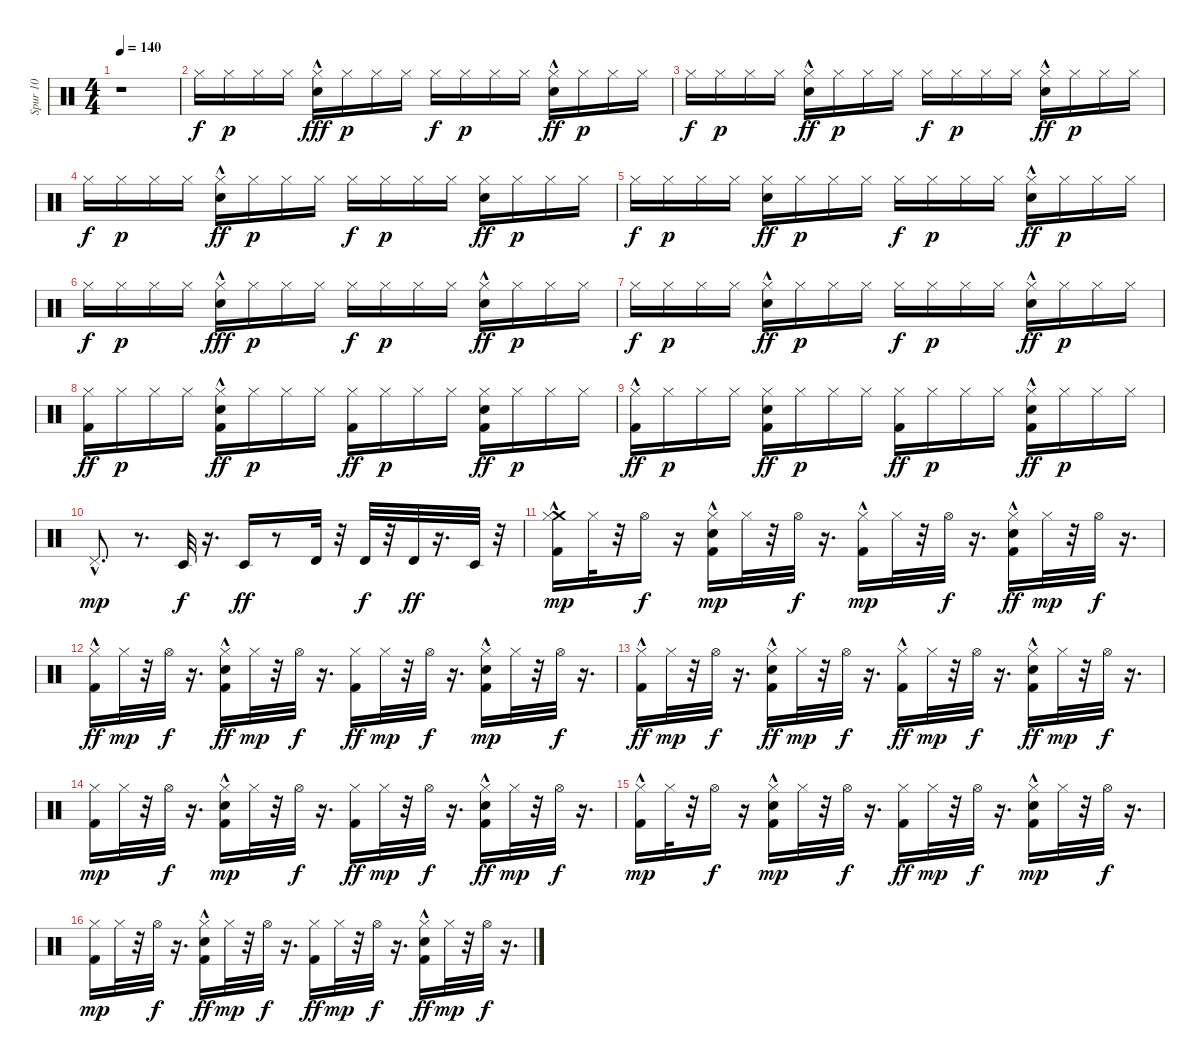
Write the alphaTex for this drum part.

\track ("Spur 10" "Spur 10") {instrument percussion}
\staff {score}
\articulation defaults
\ts (4 4)
\tempo 140
\clef neutral
\ks c
r.1{dy f} |
"Hi-Hat (closed)".16 "Hi-Hat (closed)".16{dy p} "Hi-Hat (closed)".16 "Hi-Hat (closed)".16 ("Hi-Hat (closed)" "Hand Clap (hit)"{hac}).16{dy fff} "Hi-Hat (closed)".16{dy p} "Hi-Hat (closed)".16 "Hi-Hat (closed)".16 "Hi-Hat (closed)".16{dy f} "Hi-Hat (closed)".16{dy p} "Hi-Hat (closed)".16 "Hi-Hat (closed)".16 ("Hi-Hat (closed)" "Hand Clap (hit)"{hac}).16{dy ff} "Hi-Hat (closed)".16{dy p} "Hi-Hat (closed)".16 "Hi-Hat (closed)".16 |
"Hi-Hat (closed)".16{dy f} "Hi-Hat (closed)".16{dy p} "Hi-Hat (closed)".16 "Hi-Hat (closed)".16 ("Hand Clap (hit)"{hac} "Hi-Hat (closed)").16{dy ff} "Hi-Hat (closed)".16{dy p} "Hi-Hat (closed)".16 "Hi-Hat (closed)".16 "Hi-Hat (closed)".16{dy f} "Hi-Hat (closed)".16{dy p} "Hi-Hat (closed)".16 "Hi-Hat (closed)".16 ("Hand Clap (hit)"{hac} "Hi-Hat (closed)").16{dy ff} "Hi-Hat (closed)".16{dy p} "Hi-Hat (closed)".16 "Hi-Hat (closed)".16 |
"Hi-Hat (closed)".16{dy f} "Hi-Hat (closed)".16{dy p} "Hi-Hat (closed)".16 "Hi-Hat (closed)".16 ("Hi-Hat (closed)" "Hand Clap (hit)"{hac}).16{dy ff} "Hi-Hat (closed)".16{dy p} "Hi-Hat (closed)".16 "Hi-Hat (closed)".16 "Hi-Hat (closed)".16{dy f} "Hi-Hat (closed)".16{dy p} "Hi-Hat (closed)".16 "Hi-Hat (closed)".16 ("Hi-Hat (closed)" "Hand Clap (hit)").16{dy ff} "Hi-Hat (closed)".16{dy p} "Hi-Hat (closed)".16 "Hi-Hat (closed)".16 |
"Hi-Hat (closed)".16{dy f} "Hi-Hat (closed)".16{dy p} "Hi-Hat (closed)".16 "Hi-Hat (closed)".16 ("Hi-Hat (closed)" "Hand Clap (hit)").16{dy ff} "Hi-Hat (closed)".16{dy p} "Hi-Hat (closed)".16 "Hi-Hat (closed)".16 "Hi-Hat (closed)".16{dy f} "Hi-Hat (closed)".16{dy p} "Hi-Hat (closed)".16 "Hi-Hat (closed)".16 ("Hi-Hat (closed)" "Hand Clap (hit)"{hac}).16{dy ff} "Hi-Hat (closed)".16{dy p} "Hi-Hat (closed)".16 "Hi-Hat (closed)".16 |
"Hi-Hat (closed)".16{dy f} "Hi-Hat (closed)".16{dy p} "Hi-Hat (closed)".16 "Hi-Hat (closed)".16 ("Hi-Hat (closed)" "Hand Clap (hit)"{hac}).16{dy fff} "Hi-Hat (closed)".16{dy p} "Hi-Hat (closed)".16 "Hi-Hat (closed)".16 "Hi-Hat (closed)".16{dy f} "Hi-Hat (closed)".16{dy p} "Hi-Hat (closed)".16 "Hi-Hat (closed)".16 ("Hi-Hat (closed)" "Hand Clap (hit)"{hac}).16{dy ff} "Hi-Hat (closed)".16{dy p} "Hi-Hat (closed)".16 "Hi-Hat (closed)".16 |
"Hi-Hat (closed)".16{dy f} "Hi-Hat (closed)".16{dy p} "Hi-Hat (closed)".16 "Hi-Hat (closed)".16 ("Hi-Hat (closed)" "Hand Clap (hit)"{hac}).16{dy ff} "Hi-Hat (closed)".16{dy p} "Hi-Hat (closed)".16 "Hi-Hat (closed)".16 "Hi-Hat (closed)".16{dy f} "Hi-Hat (closed)".16{dy p} "Hi-Hat (closed)".16 "Hi-Hat (closed)".16 ("Hi-Hat (closed)" "Hand Clap (hit)"{hac}).16{dy ff} "Hi-Hat (closed)".16{dy p} "Hi-Hat (closed)".16 "Hi-Hat (closed)".16 |
("Kick (hit) 2" "Hi-Hat (closed)").16{dy ff} "Hi-Hat (closed)".16{dy p} "Hi-Hat (closed)".16 "Hi-Hat (closed)".16 ("Hand Clap (hit)"{hac} "Hi-Hat (closed)" "Kick (hit) 2").16{dy ff} "Hi-Hat (closed)".16{dy p} "Hi-Hat (closed)".16 "Hi-Hat (closed)".16 ("Hi-Hat (closed)" "Kick (hit) 2").16{dy ff} "Hi-Hat (closed)".16{dy p} "Hi-Hat (closed)".16 "Hi-Hat (closed)".16 ("Kick (hit) 2" "Hi-Hat (closed)" "Hand Clap (hit)").16{dy ff} "Hi-Hat (closed)".16{dy p} "Hi-Hat (closed)".16 "Hi-Hat (closed)".16 |
("Kick (hit) 2"{hac} "Hi-Hat (closed)").16{dy ff} "Hi-Hat (closed)".16{dy p} "Hi-Hat (closed)".16 "Hi-Hat (closed)".16 ("Hi-Hat (closed)" "Hand Clap (hit)" "Kick (hit) 2").16{dy ff} "Hi-Hat (closed)".16{dy p} "Hi-Hat (closed)".16 "Hi-Hat (closed)".16 ("Hi-Hat (closed)" "Kick (hit) 2").16{dy ff} "Hi-Hat (closed)".16{dy p} "Hi-Hat (closed)".16 "Hi-Hat (closed)".16 ("Hi-Hat (closed)" "Kick (hit) 2"{hac} "Hand Clap (hit)"{hac}).16{dy ff} "Hi-Hat (closed)".16{dy p} "Hi-Hat (closed)".16 "Hi-Hat (closed)".16 |
"Pedal Hi-Hat (hit)"{hac}.8{d dy mp} r.8{d} "Timbale low (hit)".32{dy f} r.16{d} "Timbale low (hit)".16{dy ff} r.8 "Timbale high (hit)".32 r.32 "Timbale high (hit)".32{dy f} r.32 "Timbale high (hit)".32{dy ff} r.16{d} "Timbale low (hit)".32 r.32 |
("Crash medium (hit)" "Kick (hit) 2"{hac} "Hi-Hat (closed)").16{dy mp} "Hi-Hat (closed)".32 r.32 "Hi-Hat (open)".16{dy f} r.16 ("Kick (hit) 2"{hac} "Electric Snare (hit)"{hac} "Hi-Hat (closed)").16{dy mp} "Hi-Hat (closed)".32 r.32 "Hi-Hat (open)".32{dy f} r.16{d} ("Kick (hit) 2"{hac} "Hi-Hat (closed)").16{dy mp} "Hi-Hat (closed)".32 r.32 "Hi-Hat (open)".32{dy f} r.16{d} ("Electric Snare (hit)" "Hi-Hat (closed)" "Kick (hit) 2"{hac}).16{dy ff} "Hi-Hat (closed)".32{dy mp} r.32 "Hi-Hat (open)".32{dy f} r.16{d} |
("Hi-Hat (closed)" "Kick (hit) 2"{hac}).16{dy ff} "Hi-Hat (closed)".32{dy mp} r.32 "Hi-Hat (open)".32{dy f} r.16{d} ("Electric Snare (hit)"{hac} "Hi-Hat (closed)" "Kick (hit) 2"{hac}).16{dy ff} "Hi-Hat (closed)".32{dy mp} r.32 "Hi-Hat (open)".32{dy f} r.16{d} ("Hi-Hat (closed)" "Kick (hit) 2").16{dy ff} "Hi-Hat (closed)".32{dy mp} r.32 "Hi-Hat (open)".32{dy f} r.16{d} ("Kick (hit) 2"{hac} "Electric Snare (hit)"{hac} "Hi-Hat (closed)").16{dy mp} "Hi-Hat (closed)".32 r.32 "Hi-Hat (open)".32{dy f} r.16{d} |
("Hi-Hat (closed)" "Kick (hit) 2"{hac}).16{dy ff} "Hi-Hat (closed)".32{dy mp} r.32 "Hi-Hat (open)".32{dy f} r.16{d} ("Electric Snare (hit)" "Hi-Hat (closed)" "Kick (hit) 2"{hac}).16{dy ff} "Hi-Hat (closed)".32{dy mp} r.32 "Hi-Hat (open)".32{dy f} r.16{d} ("Hi-Hat (closed)" "Kick (hit) 2"{hac}).16{dy ff} "Hi-Hat (closed)".32{dy mp} r.32 "Hi-Hat (open)".32{dy f} r.16{d} ("Hi-Hat (closed)" "Kick (hit) 2" "Electric Snare (hit)"{hac}).16{dy ff} "Hi-Hat (closed)".32{dy mp} r.32 "Hi-Hat (open)".32{dy f} r.16{d} |
("Kick (hit) 2" "Hi-Hat (closed)").16{dy mp} "Hi-Hat (closed)".32 r.32 "Hi-Hat (open)".32{dy f} r.16{d} ("Kick (hit) 2" "Hi-Hat (closed)" "Electric Snare (hit)"{hac}).16{dy mp} "Hi-Hat (closed)".32 r.32 "Hi-Hat (open)".32{dy f} r.16{d} ("Hi-Hat (closed)" "Kick (hit) 2").16{dy ff} "Hi-Hat (closed)".32{dy mp} r.32 "Hi-Hat (open)".32{dy f} r.16{d} ("Electric Snare (hit)"{hac} "Hi-Hat (closed)" "Kick (hit) 2"{hac}).16{dy ff} "Hi-Hat (closed)".32{dy mp} r.32 "Hi-Hat (open)".32{dy f} r.16{d} |
("Kick (hit) 2"{hac} "Hi-Hat (closed)").16{dy mp} "Hi-Hat (closed)".32 r.32 "Hi-Hat (open)".16{dy f} r.16 ("Kick (hit) 2"{hac} "Hi-Hat (closed)" "Electric Snare (hit)"{hac}).16{dy mp} "Hi-Hat (closed)".32 r.32 "Hi-Hat (open)".32{dy f} r.16{d} ("Hi-Hat (closed)" "Kick (hit) 2").16{dy ff} "Hi-Hat (closed)".32{dy mp} r.32 "Hi-Hat (open)".32{dy f} r.16{d} ("Kick (hit) 2"{hac} "Hi-Hat (closed)" "Electric Snare (hit)"{hac}).16{dy mp} "Hi-Hat (closed)".32 r.32 "Hi-Hat (open)".32{dy f} r.16{d} |
("Kick (hit) 2" "Hi-Hat (closed)").16{dy mp} "Hi-Hat (closed)".32 r.32 "Hi-Hat (open)".32{dy f} r.16{d} ("Hi-Hat (closed)" "Kick (hit) 2" "Electric Snare (hit)"{hac}).16{dy ff} "Hi-Hat (closed)".32{dy mp} r.32 "Hi-Hat (open)".32{dy f} r.16{d} ("Hi-Hat (closed)" "Kick (hit) 2").16{dy ff} "Hi-Hat (closed)".32{dy mp} r.32 "Hi-Hat (open)".32{dy f} r.16{d} ("Electric Snare (hit)"{hac} "Hi-Hat (closed)" "Kick (hit) 2").16{dy ff} "Hi-Hat (closed)".32{dy mp} r.32 "Hi-Hat (open)".32{dy f} r.16{d}
